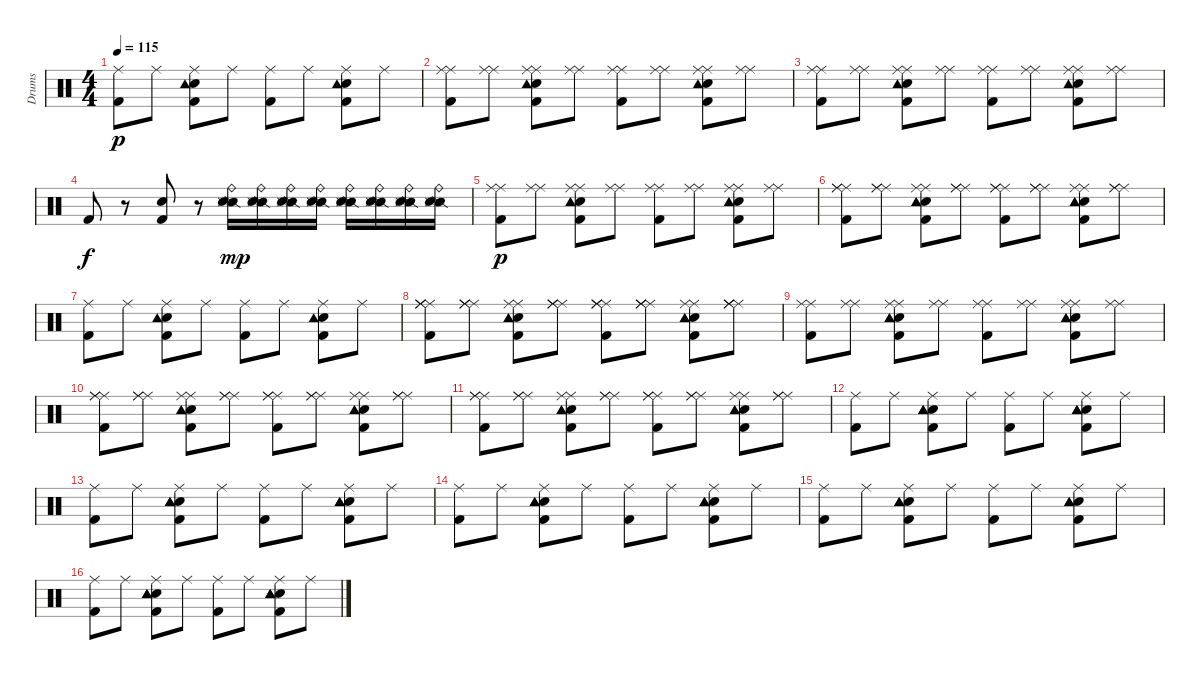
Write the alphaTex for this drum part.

\track ("Drums" "Drums") {instrument percussion}
\staff {score}
\articulation defaults
\ts (4 4)
\tempo 115
\clef neutral
\ks c
("Kick (hit) 2" "Ride (middle)").8{dy p} "Ride (middle)".8 ("Snare (hit) 2" "Kick (hit) 2" "Tambourine (hit)" "Ride (middle)").8 "Ride (middle)".8 ("Kick (hit) 2" "Ride (middle)").8 "Ride (middle)".8 ("Snare (hit) 2" "Kick (hit) 2" "Tambourine (hit)" "Ride (middle)").8 "Ride (middle)".8 |
("Kick (hit) 2" "Ride (middle)" "Ride (middle)").8 ("Ride (middle)" "Ride (middle)").8 ("Kick (hit) 2" "Snare (hit) 2" "Tambourine (hit)" "Ride (middle)" "Ride (middle)").8 ("Ride (middle)" "Ride (middle)").8 ("Kick (hit) 2" "Ride (middle)" "Ride (middle)").8 ("Ride (middle)" "Ride (middle)").8 ("Kick (hit) 2" "Snare (hit) 2" "Tambourine (hit)" "Ride (middle)" "Ride (middle)").8 ("Ride (middle)" "Ride (middle)").8 |
("Kick (hit) 2" "Ride (middle)" "Ride (middle)").8 ("Ride (middle)" "Ride (middle)").8 ("Kick (hit) 2" "Snare (hit) 2" "Ride (middle)" "Ride (middle)" "Tambourine (hit)").8 ("Ride (middle)" "Ride (middle)").8 ("Kick (hit) 2" "Ride (middle)" "Ride (middle)").8 ("Ride (middle)" "Ride (middle)").8 ("Kick (hit) 2" "Snare (hit) 2" "Ride (middle)" "Ride (middle)" "Tambourine (hit)").8 ("Ride (middle)" "Ride (middle)").8 |
"Kick (hit) 2".8{dy f} r.8 ("Kick (hit) 2" "Snare (hit) 2").8 r.8 ("Snare (side stick) 2" "Snare (hit) 2" "Metronome (hit)" "Ride (bell)").16{dy mp} ("Snare (side stick) 2" "Snare (hit) 2" "Metronome (hit)" "Ride (bell)").16 ("Snare (side stick) 2" "Snare (hit) 2" "Metronome (hit)" "Ride (bell)").16 ("Snare (side stick) 2" "Snare (hit) 2" "Metronome (hit)" "Ride (bell)").16 ("Snare (side stick) 2" "Snare (hit) 2" "Metronome (hit)" "Ride (bell)").16 ("Snare (side stick) 2" "Snare (hit) 2" "Metronome (hit)" "Ride (bell)").16 ("Snare (side stick) 2" "Snare (hit) 2" "Metronome (hit)" "Ride (bell)").16 ("Snare (side stick) 2" "Snare (hit) 2" "Metronome (hit)" "Ride (bell)").16 |
("Kick (hit) 2" "Ride (middle)" "Ride (middle)").8{dy p} ("Ride (middle)" "Ride (middle)").8 ("Kick (hit) 2" "Snare (hit) 2" "Ride (middle)" "Tambourine (hit)" "Ride (middle)" "Tambourine (hit)").8 ("Ride (middle)" "Ride (middle)").8 ("Kick (hit) 2" "Ride (middle)" "Ride (middle)").8 ("Ride (middle)" "Ride (middle)").8 ("Kick (hit) 2" "Snare (hit) 2" "Ride (middle)" "Tambourine (hit)" "Ride (middle)" "Tambourine (hit)").8 ("Ride (middle)" "Ride (middle)").8 |
("Kick (hit) 2" "Ride (middle)" "Ride (middle)" "Ride (middle)").8 ("Ride (middle)" "Ride (middle)" "Ride (middle)").8 ("Snare (hit) 2" "Kick (hit) 2" "Ride (middle)" "Tambourine (hit)" "Ride (middle)" "Tambourine (hit)").8 ("Ride (middle)" "Ride (middle)" "Ride (middle)").8 ("Kick (hit) 2" "Ride (middle)" "Ride (middle)" "Ride (middle)").8 ("Ride (middle)" "Ride (middle)" "Ride (middle)").8 ("Snare (hit) 2" "Kick (hit) 2" "Ride (middle)" "Tambourine (hit)" "Ride (middle)" "Tambourine (hit)").8 ("Ride (middle)" "Ride (middle)" "Ride (middle)").8 |
("Kick (hit) 2" "Ride (middle)").8 "Ride (middle)".8 ("Kick (hit) 2" "Snare (hit) 2" "Tambourine (hit)" "Ride (middle)").8 "Ride (middle)".8 ("Kick (hit) 2" "Ride (middle)").8 "Ride (middle)".8 ("Kick (hit) 2" "Snare (hit) 2" "Tambourine (hit)" "Ride (middle)").8 "Ride (middle)".8 |
("Kick (hit) 2" "Ride (middle)" "Ride (middle)" "Ride (middle)" "Ride (middle)").8 ("Ride (middle)" "Ride (middle)" "Ride (middle)" "Ride (middle)").8 ("Snare (hit) 2" "Kick (hit) 2" "Ride (middle)" "Tambourine (hit)" "Tambourine (hit)" "Ride (middle)").8 ("Ride (middle)" "Ride (middle)" "Ride (middle)" "Ride (middle)").8 ("Kick (hit) 2" "Ride (middle)" "Ride (middle)" "Ride (middle)" "Ride (middle)").8 ("Ride (middle)" "Ride (middle)" "Ride (middle)" "Ride (middle)").8 ("Snare (hit) 2" "Kick (hit) 2" "Ride (middle)" "Tambourine (hit)" "Tambourine (hit)" "Ride (middle)").8 ("Ride (middle)" "Ride (middle)" "Ride (middle)" "Ride (middle)").8 |
("Kick (hit) 2" "Ride (middle)" "Ride (middle)").8 ("Ride (middle)" "Ride (middle)").8 ("Kick (hit) 2" "Snare (hit) 2" "Ride (middle)" "Tambourine (hit)" "Ride (middle)" "Tambourine (hit)").8 ("Ride (middle)" "Ride (middle)").8 ("Kick (hit) 2" "Ride (middle)" "Ride (middle)").8 ("Ride (middle)" "Ride (middle)").8 ("Kick (hit) 2" "Snare (hit) 2" "Ride (middle)" "Tambourine (hit)" "Ride (middle)" "Tambourine (hit)").8 ("Ride (middle)" "Ride (middle)").8 |
("Kick (hit) 2" "Ride (middle)" "Ride (middle)" "Ride (middle)").8 ("Ride (middle)" "Ride (middle)" "Ride (middle)").8 ("Snare (hit) 2" "Kick (hit) 2" "Ride (middle)" "Tambourine (hit)" "Ride (middle)" "Tambourine (hit)").8 ("Ride (middle)" "Ride (middle)" "Ride (middle)").8 ("Kick (hit) 2" "Ride (middle)" "Ride (middle)" "Ride (middle)").8 ("Ride (middle)" "Ride (middle)" "Ride (middle)").8 ("Snare (hit) 2" "Kick (hit) 2" "Ride (middle)" "Tambourine (hit)" "Ride (middle)" "Tambourine (hit)").8 ("Ride (middle)" "Ride (middle)" "Ride (middle)").8 |
("Kick (hit) 2" "Ride (middle)" "Ride (middle)" "Ride (middle)").8 ("Ride (middle)" "Ride (middle)" "Ride (middle)").8 ("Kick (hit) 2" "Snare (hit) 2" "Ride (middle)" "Tambourine (hit)" "Tambourine (hit)" "Ride (middle)").8 ("Ride (middle)" "Ride (middle)" "Ride (middle)").8 ("Kick (hit) 2" "Ride (middle)" "Ride (middle)" "Ride (middle)").8 ("Ride (middle)" "Ride (middle)" "Ride (middle)").8 ("Kick (hit) 2" "Snare (hit) 2" "Ride (middle)" "Tambourine (hit)" "Tambourine (hit)" "Ride (middle)").8 ("Ride (middle)" "Ride (middle)" "Ride (middle)").8 |
("Kick (hit) 2" "Ride (middle)").8 "Ride (middle)".8 ("Snare (hit) 2" "Kick (hit) 2" "Tambourine (hit)" "Tambourine (hit)" "Tambourine (hit)" "Ride (middle)").8 "Ride (middle)".8 ("Kick (hit) 2" "Ride (middle)").8 "Ride (middle)".8 ("Snare (hit) 2" "Kick (hit) 2" "Tambourine (hit)" "Tambourine (hit)" "Tambourine (hit)" "Ride (middle)").8 "Ride (middle)".8 |
("Kick (hit) 2" "Ride (middle)").8 "Ride (middle)".8 ("Kick (hit) 2" "Snare (hit) 2" "Ride (middle)" "Tambourine (hit)" "Tambourine (hit)" "Tambourine (hit)").8 "Ride (middle)".8 ("Kick (hit) 2" "Ride (middle)").8 "Ride (middle)".8 ("Kick (hit) 2" "Snare (hit) 2" "Ride (middle)" "Tambourine (hit)" "Tambourine (hit)" "Tambourine (hit)").8 "Ride (middle)".8 |
("Kick (hit) 2" "Ride (middle)").8 "Ride (middle)".8 ("Snare (hit) 2" "Kick (hit) 2" "Ride (middle)" "Tambourine (hit)" "Tambourine (hit)" "Tambourine (hit)").8 "Ride (middle)".8 ("Kick (hit) 2" "Ride (middle)").8 "Ride (middle)".8 ("Snare (hit) 2" "Kick (hit) 2" "Ride (middle)" "Tambourine (hit)" "Tambourine (hit)" "Tambourine (hit)").8 "Ride (middle)".8 |
("Kick (hit) 2" "Ride (middle)").8 "Ride (middle)".8 ("Kick (hit) 2" "Snare (hit) 2" "Ride (middle)" "Tambourine (hit)" "Tambourine (hit)" "Tambourine (hit)").8 "Ride (middle)".8 ("Kick (hit) 2" "Ride (middle)").8 "Ride (middle)".8 ("Kick (hit) 2" "Snare (hit) 2" "Ride (middle)" "Tambourine (hit)" "Tambourine (hit)" "Tambourine (hit)").8 "Ride (middle)".8 |
("Kick (hit) 2" "Ride (middle)").8 "Ride (middle)".8 ("Snare (hit) 2" "Kick (hit) 2" "Ride (middle)" "Tambourine (hit)" "Tambourine (hit)" "Tambourine (hit)").8 "Ride (middle)".8 ("Kick (hit) 2" "Ride (middle)").8 "Ride (middle)".8 ("Snare (hit) 2" "Kick (hit) 2" "Ride (middle)" "Tambourine (hit)" "Tambourine (hit)" "Tambourine (hit)").8 "Ride (middle)".8
